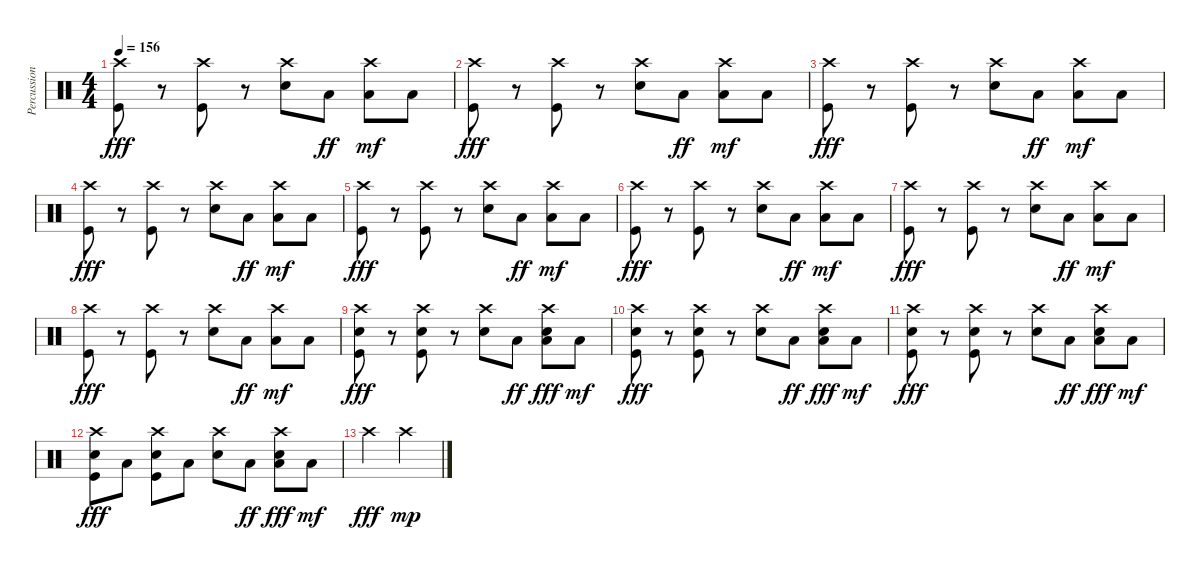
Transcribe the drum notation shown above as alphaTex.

\track ("Percussion" "Percussion") {instrument percussion}
\staff {score}
\articulation defaults
\ts (4 4)
\tempo 156
\clef neutral
\ks c
("Crash high (hit)" "Kick (hit)").8{dy fff} r.8 ("Crash high (hit)" "Kick (hit)").8 r.8 ("Crash high (hit)" "Snare (hit) 2").8 "Low Tom (hit)".8{dy ff} ("Crash high (hit)" "Low Tom (hit)").8{dy mf} "Low Tom (hit)".8 |
("Crash high (hit)" "Kick (hit)").8{dy fff} r.8 ("Crash high (hit)" "Kick (hit)").8 r.8 ("Crash high (hit)" "Snare (hit) 2").8 "Low Tom (hit)".8{dy ff} ("Crash high (hit)" "Low Tom (hit)").8{dy mf} "Low Tom (hit)".8 |
("Crash high (hit)" "Kick (hit)").8{dy fff} r.8 ("Crash high (hit)" "Kick (hit)").8 r.8 ("Crash high (hit)" "Snare (hit) 2").8 "Low Tom (hit)".8{dy ff} ("Crash high (hit)" "Low Tom (hit)").8{dy mf} "Low Tom (hit)".8 |
("Crash high (hit)" "Kick (hit)").8{dy fff} r.8 ("Crash high (hit)" "Kick (hit)").8 r.8 ("Crash high (hit)" "Snare (hit) 2").8 "Low Tom (hit)".8{dy ff} ("Crash high (hit)" "Low Tom (hit)").8{dy mf} "Low Tom (hit)".8 |
("Crash high (hit)" "Kick (hit)").8{dy fff} r.8 ("Crash high (hit)" "Kick (hit)").8 r.8 ("Crash high (hit)" "Snare (hit) 2").8 "Low Tom (hit)".8{dy ff} ("Crash high (hit)" "Low Tom (hit)").8{dy mf} "Low Tom (hit)".8 |
("Crash high (hit)" "Kick (hit)").8{dy fff} r.8 ("Crash high (hit)" "Kick (hit)").8 r.8 ("Crash high (hit)" "Snare (hit) 2").8 "Low Tom (hit)".8{dy ff} ("Crash high (hit)" "Low Tom (hit)").8{dy mf} "Low Tom (hit)".8 |
("Crash high (hit)" "Kick (hit)").8{dy fff} r.8 ("Crash high (hit)" "Kick (hit)").8 r.8 ("Crash high (hit)" "Snare (hit) 2").8 "Low Tom (hit)".8{dy ff} ("Crash high (hit)" "Low Tom (hit)").8{dy mf} "Low Tom (hit)".8 |
("Crash high (hit)" "Kick (hit)").8{dy fff} r.8 ("Crash high (hit)" "Kick (hit)").8 r.8 ("Crash high (hit)" "Snare (hit) 2").8 "Low Tom (hit)".8{dy ff} ("Crash high (hit)" "Low Tom (hit)").8{dy mf} "Low Tom (hit)".8 |
("Crash high (hit)" "Snare (hit) 2" "Kick (hit)").8{dy fff} r.8 ("Crash high (hit)" "Snare (hit) 2" "Kick (hit)").8 r.8 ("Crash high (hit)" "Snare (hit) 2").8 "Low Tom (hit)".8{dy ff} ("Crash high (hit)" "Snare (hit) 2" "Low Tom (hit)").8{dy fff} "Low Tom (hit)".8{dy mf} |
("Crash high (hit)" "Snare (hit) 2" "Kick (hit)").8{dy fff} r.8 ("Crash high (hit)" "Snare (hit) 2" "Kick (hit)").8 r.8 ("Crash high (hit)" "Snare (hit) 2").8 "Low Tom (hit)".8{dy ff} ("Crash high (hit)" "Snare (hit) 2" "Low Tom (hit)").8{dy fff} "Low Tom (hit)".8{dy mf} |
("Crash high (hit)" "Snare (hit) 2" "Kick (hit)").8{dy fff} r.8 ("Crash high (hit)" "Snare (hit) 2" "Kick (hit)").8 r.8 ("Crash high (hit)" "Snare (hit) 2").8 "Low Tom (hit)".8{dy ff} ("Crash high (hit)" "Snare (hit) 2" "Low Tom (hit)").8{dy fff} "Low Tom (hit)".8{dy mf} |
("Crash high (hit)" "Snare (hit) 2" "Kick (hit)").8{dy fff} "Low Tom (hit)".8 ("Crash high (hit)" "Snare (hit) 2" "Kick (hit)").8 "Low Tom (hit)".8 ("Crash high (hit)" "Snare (hit) 2").8 "Low Tom (hit)".8{dy ff} ("Crash high (hit)" "Snare (hit) 2" "Low Tom (hit)").8{dy fff} "Low Tom (hit)".8{dy mf} |
"Crash high (hit)".4{dy fff} "Crash high (hit)".4{dy mp}
